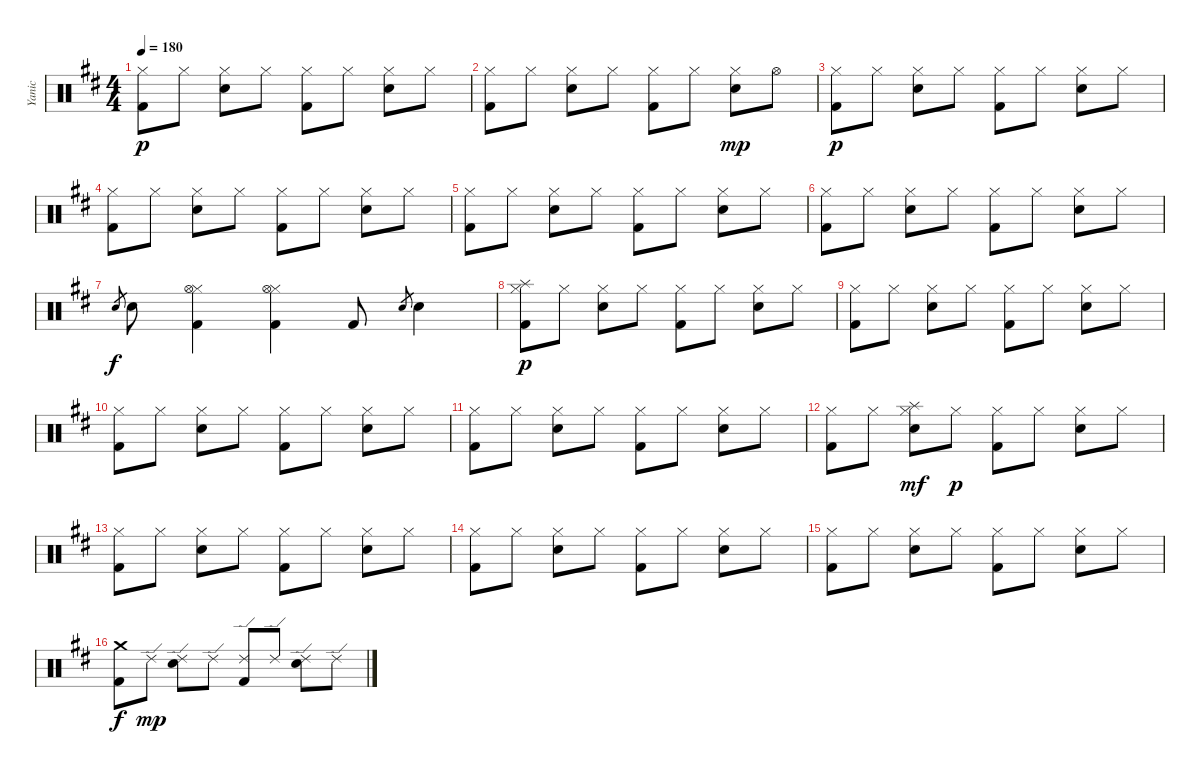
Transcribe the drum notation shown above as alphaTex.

\track ("Yanic" "Yanic") {instrument percussion}
\staff {score}
\articulation defaults
\ts (4 4)
\tempo 180
\clef neutral
\ks d
("Kick (hit) 2" "Hi-Hat (closed)").8{dy p} "Hi-Hat (closed)".8 ("Electric Snare (hit)" "Hi-Hat (closed)").8 "Hi-Hat (closed)".8 ("Kick (hit) 2" "Hi-Hat (closed)").8 "Hi-Hat (closed)".8 ("Electric Snare (hit)" "Hi-Hat (closed)").8 "Hi-Hat (closed)".8 |
("Kick (hit) 2" "Hi-Hat (closed)").8 "Hi-Hat (closed)".8 ("Electric Snare (hit)" "Hi-Hat (closed)").8 "Hi-Hat (closed)".8 ("Kick (hit) 2" "Hi-Hat (closed)").8 "Hi-Hat (closed)".8 ("Electric Snare (hit)" "Hi-Hat (closed)").8{dy mp} "Hi-Hat (open)".8 |
("Kick (hit) 2" "Hi-Hat (closed)").8{dy p} "Hi-Hat (closed)".8 ("Electric Snare (hit)" "Hi-Hat (closed)").8 "Hi-Hat (closed)".8 ("Kick (hit) 2" "Hi-Hat (closed)").8 "Hi-Hat (closed)".8 ("Electric Snare (hit)" "Hi-Hat (closed)").8 "Hi-Hat (closed)".8 |
("Kick (hit) 2" "Hi-Hat (closed)").8 "Hi-Hat (closed)".8 ("Electric Snare (hit)" "Hi-Hat (closed)").8 "Hi-Hat (closed)".8 ("Kick (hit) 2" "Hi-Hat (closed)").8 "Hi-Hat (closed)".8 ("Electric Snare (hit)" "Hi-Hat (closed)").8 "Hi-Hat (closed)".8 |
("Kick (hit) 2" "Hi-Hat (closed)").8 "Hi-Hat (closed)".8 ("Electric Snare (hit)" "Hi-Hat (closed)").8 "Hi-Hat (closed)".8 ("Kick (hit) 2" "Hi-Hat (closed)").8 "Hi-Hat (closed)".8 ("Electric Snare (hit)" "Hi-Hat (closed)").8 "Hi-Hat (closed)".8 |
("Kick (hit) 2" "Hi-Hat (closed)").8 "Hi-Hat (closed)".8 ("Electric Snare (hit)" "Hi-Hat (closed)").8 "Hi-Hat (closed)".8 ("Kick (hit) 2" "Hi-Hat (closed)").8 "Hi-Hat (closed)".8 ("Electric Snare (hit)" "Hi-Hat (closed)").8 "Hi-Hat (closed)".8 |
"Electric Snare (hit)".8{gr dy f} "Electric Snare (hit)".8 ("Kick (hit) 2" "Hi-Hat (closed)" "Hi-Hat (open)").4 ("Kick (hit) 2" "Hi-Hat (closed)" "Hi-Hat (open)").4 "Kick (hit) 2".8 "Electric Snare (hit)".8{gr} "Electric Snare (hit)".4 |
("Kick (hit) 2" "Hi-Hat (closed)" "Splash (hit)").8{dy p} "Hi-Hat (closed)".8 ("Electric Snare (hit)" "Hi-Hat (closed)").8 "Hi-Hat (closed)".8 ("Kick (hit) 2" "Hi-Hat (closed)").8 "Hi-Hat (closed)".8 ("Electric Snare (hit)" "Hi-Hat (closed)").8 "Hi-Hat (closed)".8 |
("Kick (hit) 2" "Hi-Hat (closed)").8 "Hi-Hat (closed)".8 ("Electric Snare (hit)" "Hi-Hat (closed)").8 "Hi-Hat (closed)".8 ("Kick (hit) 2" "Hi-Hat (closed)").8 "Hi-Hat (closed)".8 ("Electric Snare (hit)" "Hi-Hat (closed)").8 "Hi-Hat (closed)".8 |
("Kick (hit) 2" "Hi-Hat (closed)").8 "Hi-Hat (closed)".8 ("Electric Snare (hit)" "Hi-Hat (closed)").8 "Hi-Hat (closed)".8 ("Kick (hit) 2" "Hi-Hat (closed)").8 "Hi-Hat (closed)".8 ("Electric Snare (hit)" "Hi-Hat (closed)").8 "Hi-Hat (closed)".8 |
("Kick (hit) 2" "Hi-Hat (closed)").8 "Hi-Hat (closed)".8 ("Electric Snare (hit)" "Hi-Hat (closed)").8 "Hi-Hat (closed)".8 ("Kick (hit) 2" "Hi-Hat (closed)").8 "Hi-Hat (closed)".8 ("Electric Snare (hit)" "Hi-Hat (closed)").8 "Hi-Hat (closed)".8 |
("Kick (hit) 2" "Hi-Hat (closed)").8 "Hi-Hat (closed)".8 ("Electric Snare (hit)" "Hi-Hat (closed)" "Splash (hit)").8{dy mf} "Hi-Hat (closed)".8{dy p} ("Kick (hit) 2" "Hi-Hat (closed)").8 "Hi-Hat (closed)".8 ("Electric Snare (hit)" "Hi-Hat (closed)").8 "Hi-Hat (closed)".8 |
("Kick (hit) 2" "Hi-Hat (closed)").8 "Hi-Hat (closed)".8 ("Electric Snare (hit)" "Hi-Hat (closed)").8 "Hi-Hat (closed)".8 ("Kick (hit) 2" "Hi-Hat (closed)").8 "Hi-Hat (closed)".8 ("Electric Snare (hit)" "Hi-Hat (closed)").8 "Hi-Hat (closed)".8 |
("Kick (hit) 2" "Hi-Hat (closed)").8 "Hi-Hat (closed)".8 ("Electric Snare (hit)" "Hi-Hat (closed)").8 "Hi-Hat (closed)".8 ("Kick (hit) 2" "Hi-Hat (closed)").8 "Hi-Hat (closed)".8 ("Electric Snare (hit)" "Hi-Hat (closed)").8 "Hi-Hat (closed)".8 |
("Kick (hit) 2" "Hi-Hat (closed)").8 "Hi-Hat (closed)".8 ("Electric Snare (hit)" "Hi-Hat (closed)").8 "Hi-Hat (closed)".8 ("Kick (hit) 2" "Hi-Hat (closed)").8 "Hi-Hat (closed)".8 ("Electric Snare (hit)" "Hi-Hat (closed)").8 "Hi-Hat (closed)".8 |
("Kick (hit) 2" "Crash medium (hit)").8{dy f} "Ride (edge) 2".8{dy mp} ("Electric Snare (hit)" "Ride (edge) 2").8 "Ride (edge) 2".8 ("Kick (hit) 2" "Ride (edge) 2").8 "Ride (edge) 2".8 ("Electric Snare (hit)" "Ride (edge) 2").8 "Ride (edge) 2".8
